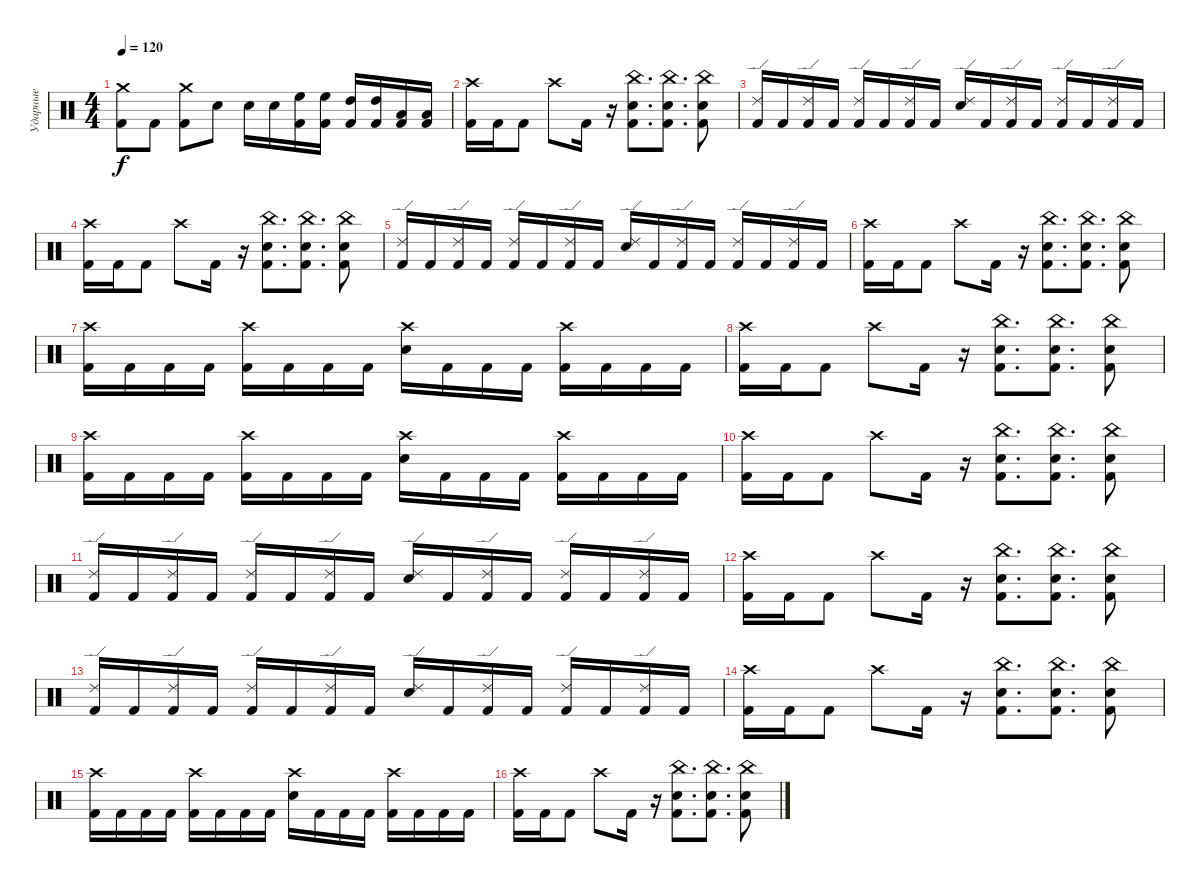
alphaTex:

\track ("Ударные" "Ударные") {instrument percussion}
\staff {score}
\articulation defaults
\ts (4 4)
\tempo 120
\clef neutral
\ks c
("Crash medium (hit)" "Kick (hit) 2").8{dy f} "Kick (hit) 2".8 ("Crash medium (hit)" "Kick (hit) 2").8 "Electric Snare (hit)".8 "Electric Snare (hit)".16 "Electric Snare (hit)".16 ("High Floor Tom (hit)" "Kick (hit) 2").16 ("High Floor Tom (hit)" "Kick (hit) 2").16 ("High Tom (hit)" "Kick (hit) 2").16 ("High Tom (hit)" "Kick (hit) 2").16 ("Low Tom (hit)" "Kick (hit) 2").16 ("Low Tom (hit)" "Kick (hit) 2").16 |
("Crash high (hit)" "Kick (hit) 2").16 "Kick (hit) 2".16 "Kick (hit) 2".8 "Crash high (hit)".8 "Kick (hit) 2".16 r.16 ("China (hit)" "Electric Snare (hit)" "Kick (hit) 2").8{d} ("China (hit)" "Electric Snare (hit)" "Kick (hit) 2").8{d} ("China (hit)" "Electric Snare (hit)" "Kick (hit) 2").8 |
("Ride (edge) 2" "Kick (hit) 2").16 "Kick (hit) 2".16 ("Ride (edge) 2" "Kick (hit) 2").16 "Kick (hit) 2".16 ("Ride (edge) 2" "Kick (hit) 2").16 "Kick (hit) 2".16 ("Ride (edge) 2" "Kick (hit) 2").16 "Kick (hit) 2".16 ("Ride (edge) 2" "Electric Snare (hit)").16 "Kick (hit) 2".16 ("Ride (edge) 2" "Kick (hit) 2").16 "Kick (hit) 2".16 ("Ride (edge) 2" "Kick (hit) 2").16 "Kick (hit) 2".16 ("Ride (edge) 2" "Kick (hit) 2").16 "Kick (hit) 2".16 |
("Crash high (hit)" "Kick (hit) 2").16 "Kick (hit) 2".16 "Kick (hit) 2".8 "Crash high (hit)".8 "Kick (hit) 2".16 r.16 ("China (hit)" "Electric Snare (hit)" "Kick (hit) 2").8{d} ("China (hit)" "Electric Snare (hit)" "Kick (hit) 2").8{d} ("China (hit)" "Electric Snare (hit)" "Kick (hit) 2").8 |
("Ride (edge) 2" "Kick (hit) 2").16 "Kick (hit) 2".16 ("Ride (edge) 2" "Kick (hit) 2").16 "Kick (hit) 2".16 ("Ride (edge) 2" "Kick (hit) 2").16 "Kick (hit) 2".16 ("Ride (edge) 2" "Kick (hit) 2").16 "Kick (hit) 2".16 ("Ride (edge) 2" "Electric Snare (hit)").16 "Kick (hit) 2".16 ("Ride (edge) 2" "Kick (hit) 2").16 "Kick (hit) 2".16 ("Ride (edge) 2" "Kick (hit) 2").16 "Kick (hit) 2".16 ("Ride (edge) 2" "Kick (hit) 2").16 "Kick (hit) 2".16 |
("Crash high (hit)" "Kick (hit) 2").16 "Kick (hit) 2".16 "Kick (hit) 2".8 "Crash high (hit)".8 "Kick (hit) 2".16 r.16 ("China (hit)" "Electric Snare (hit)" "Kick (hit) 2").8{d} ("China (hit)" "Electric Snare (hit)" "Kick (hit) 2").8{d} ("China (hit)" "Electric Snare (hit)" "Kick (hit) 2").8 |
("Crash high (hit)" "Kick (hit) 2").16 "Kick (hit) 2".16 "Kick (hit) 2".16 "Kick (hit) 2".16 ("Crash high (hit)" "Kick (hit) 2").16 "Kick (hit) 2".16 "Kick (hit) 2".16 "Kick (hit) 2".16 ("Crash high (hit)" "Electric Snare (hit)").16 "Kick (hit) 2".16 "Kick (hit) 2".16 "Kick (hit) 2".16 ("Crash high (hit)" "Kick (hit) 2").16 "Kick (hit) 2".16 "Kick (hit) 2".16 "Kick (hit) 2".16 |
("Crash high (hit)" "Kick (hit) 2").16 "Kick (hit) 2".16 "Kick (hit) 2".8 "Crash high (hit)".8 "Kick (hit) 2".16 r.16 ("China (hit)" "Electric Snare (hit)" "Kick (hit) 2").8{d} ("China (hit)" "Electric Snare (hit)" "Kick (hit) 2").8{d} ("China (hit)" "Electric Snare (hit)" "Kick (hit) 2").8 |
("Crash high (hit)" "Kick (hit) 2").16 "Kick (hit) 2".16 "Kick (hit) 2".16 "Kick (hit) 2".16 ("Crash high (hit)" "Kick (hit) 2").16 "Kick (hit) 2".16 "Kick (hit) 2".16 "Kick (hit) 2".16 ("Crash high (hit)" "Electric Snare (hit)").16 "Kick (hit) 2".16 "Kick (hit) 2".16 "Kick (hit) 2".16 ("Crash high (hit)" "Kick (hit) 2").16 "Kick (hit) 2".16 "Kick (hit) 2".16 "Kick (hit) 2".16 |
("Crash high (hit)" "Kick (hit) 2").16 "Kick (hit) 2".16 "Kick (hit) 2".8 "Crash high (hit)".8 "Kick (hit) 2".16 r.16 ("China (hit)" "Electric Snare (hit)" "Kick (hit) 2").8{d} ("China (hit)" "Electric Snare (hit)" "Kick (hit) 2").8{d} ("China (hit)" "Electric Snare (hit)" "Kick (hit) 2").8 |
("Ride (edge) 2" "Kick (hit) 2").16 "Kick (hit) 2".16 ("Ride (edge) 2" "Kick (hit) 2").16 "Kick (hit) 2".16 ("Ride (edge) 2" "Kick (hit) 2").16 "Kick (hit) 2".16 ("Ride (edge) 2" "Kick (hit) 2").16 "Kick (hit) 2".16 ("Ride (edge) 2" "Electric Snare (hit)").16 "Kick (hit) 2".16 ("Ride (edge) 2" "Kick (hit) 2").16 "Kick (hit) 2".16 ("Ride (edge) 2" "Kick (hit) 2").16 "Kick (hit) 2".16 ("Ride (edge) 2" "Kick (hit) 2").16 "Kick (hit) 2".16 |
("Crash high (hit)" "Kick (hit) 2").16 "Kick (hit) 2".16 "Kick (hit) 2".8 "Crash high (hit)".8 "Kick (hit) 2".16 r.16 ("China (hit)" "Electric Snare (hit)" "Kick (hit) 2").8{d} ("China (hit)" "Electric Snare (hit)" "Kick (hit) 2").8{d} ("China (hit)" "Electric Snare (hit)" "Kick (hit) 2").8 |
("Ride (edge) 2" "Kick (hit) 2").16 "Kick (hit) 2".16 ("Ride (edge) 2" "Kick (hit) 2").16 "Kick (hit) 2".16 ("Ride (edge) 2" "Kick (hit) 2").16 "Kick (hit) 2".16 ("Ride (edge) 2" "Kick (hit) 2").16 "Kick (hit) 2".16 ("Ride (edge) 2" "Electric Snare (hit)").16 "Kick (hit) 2".16 ("Ride (edge) 2" "Kick (hit) 2").16 "Kick (hit) 2".16 ("Ride (edge) 2" "Kick (hit) 2").16 "Kick (hit) 2".16 ("Ride (edge) 2" "Kick (hit) 2").16 "Kick (hit) 2".16 |
("Crash high (hit)" "Kick (hit) 2").16 "Kick (hit) 2".16 "Kick (hit) 2".8 "Crash high (hit)".8 "Kick (hit) 2".16 r.16 ("China (hit)" "Electric Snare (hit)" "Kick (hit) 2").8{d} ("China (hit)" "Electric Snare (hit)" "Kick (hit) 2").8{d} ("China (hit)" "Electric Snare (hit)" "Kick (hit) 2").8 |
("Crash high (hit)" "Kick (hit) 2").16 "Kick (hit) 2".16 "Kick (hit) 2".16 "Kick (hit) 2".16 ("Crash high (hit)" "Kick (hit) 2").16 "Kick (hit) 2".16 "Kick (hit) 2".16 "Kick (hit) 2".16 ("Crash high (hit)" "Electric Snare (hit)").16 "Kick (hit) 2".16 "Kick (hit) 2".16 "Kick (hit) 2".16 ("Crash high (hit)" "Kick (hit) 2").16 "Kick (hit) 2".16 "Kick (hit) 2".16 "Kick (hit) 2".16 |
("Crash high (hit)" "Kick (hit) 2").16 "Kick (hit) 2".16 "Kick (hit) 2".8 "Crash high (hit)".8 "Kick (hit) 2".16 r.16 ("China (hit)" "Electric Snare (hit)" "Kick (hit) 2").8{d} ("China (hit)" "Electric Snare (hit)" "Kick (hit) 2").8{d} ("China (hit)" "Electric Snare (hit)" "Kick (hit) 2").8
